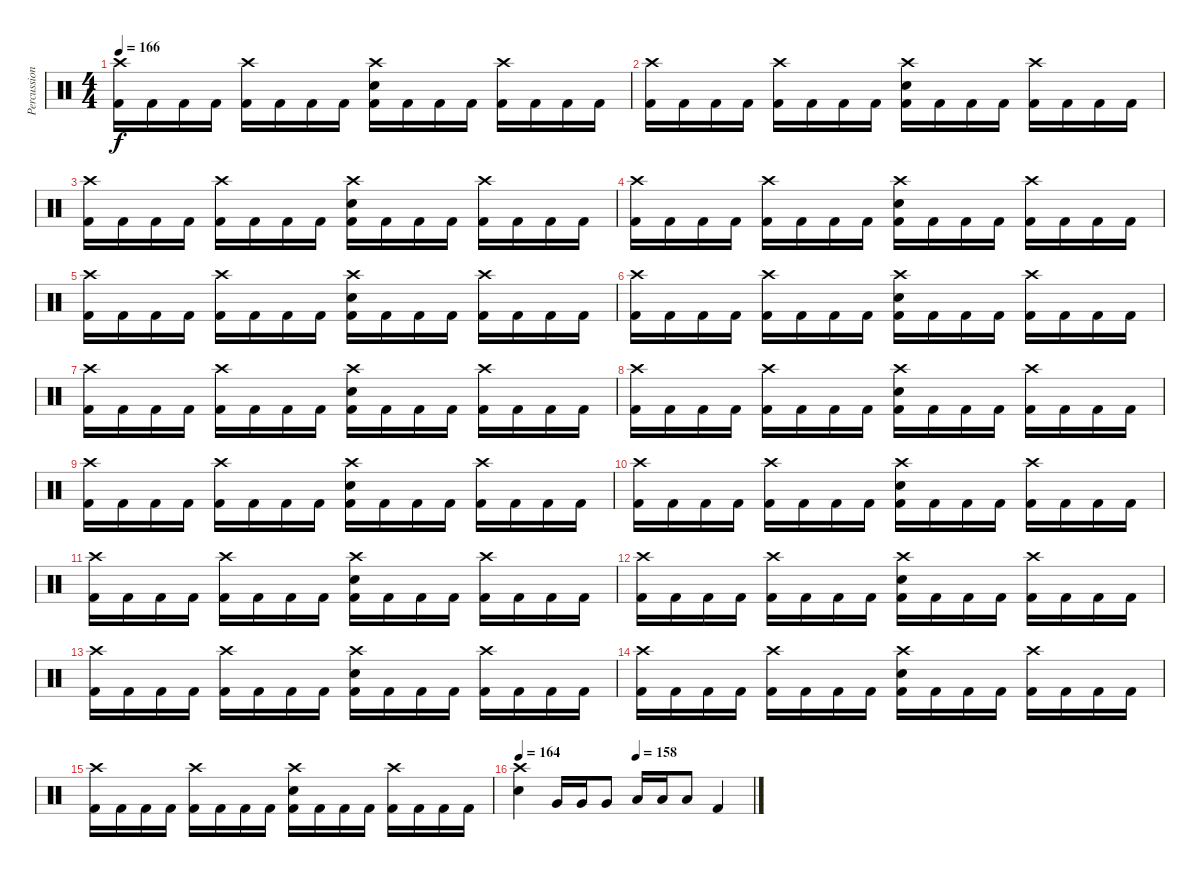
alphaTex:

\track ("Percussion" "Percussion") {instrument percussion}
\staff {score}
\articulation defaults
\ts (4 4)
\tempo 166
\clef neutral
\ks c
("Crash high (hit)" "Kick (hit) 2").16{dy f} "Kick (hit) 2".16 "Kick (hit) 2".16 "Kick (hit) 2".16 ("Crash high (hit)" "Kick (hit) 2").16 "Kick (hit) 2".16 "Kick (hit) 2".16 "Kick (hit) 2".16 ("Crash high (hit)" "Electric Snare (hit)" "Kick (hit) 2").16 "Kick (hit) 2".16 "Kick (hit) 2".16 "Kick (hit) 2".16 ("Crash high (hit)" "Kick (hit) 2").16 "Kick (hit) 2".16 "Kick (hit) 2".16 "Kick (hit) 2".16 |
("Crash high (hit)" "Kick (hit) 2").16 "Kick (hit) 2".16 "Kick (hit) 2".16 "Kick (hit) 2".16 ("Crash high (hit)" "Kick (hit) 2").16 "Kick (hit) 2".16 "Kick (hit) 2".16 "Kick (hit) 2".16 ("Crash high (hit)" "Electric Snare (hit)" "Kick (hit) 2").16 "Kick (hit) 2".16 "Kick (hit) 2".16 "Kick (hit) 2".16 ("Crash high (hit)" "Kick (hit) 2").16 "Kick (hit) 2".16 "Kick (hit) 2".16 "Kick (hit) 2".16 |
("Crash high (hit)" "Kick (hit) 2").16 "Kick (hit) 2".16 "Kick (hit) 2".16 "Kick (hit) 2".16 ("Crash high (hit)" "Kick (hit) 2").16 "Kick (hit) 2".16 "Kick (hit) 2".16 "Kick (hit) 2".16 ("Crash high (hit)" "Electric Snare (hit)" "Kick (hit) 2").16 "Kick (hit) 2".16 "Kick (hit) 2".16 "Kick (hit) 2".16 ("Crash high (hit)" "Kick (hit) 2").16 "Kick (hit) 2".16 "Kick (hit) 2".16 "Kick (hit) 2".16 |
("Crash high (hit)" "Kick (hit) 2").16 "Kick (hit) 2".16 "Kick (hit) 2".16 "Kick (hit) 2".16 ("Crash high (hit)" "Kick (hit) 2").16 "Kick (hit) 2".16 "Kick (hit) 2".16 "Kick (hit) 2".16 ("Crash high (hit)" "Electric Snare (hit)" "Kick (hit) 2").16 "Kick (hit) 2".16 "Kick (hit) 2".16 "Kick (hit) 2".16 ("Crash high (hit)" "Kick (hit) 2").16 "Kick (hit) 2".16 "Kick (hit) 2".16 "Kick (hit) 2".16 |
("Crash high (hit)" "Kick (hit) 2").16 "Kick (hit) 2".16 "Kick (hit) 2".16 "Kick (hit) 2".16 ("Crash high (hit)" "Kick (hit) 2").16 "Kick (hit) 2".16 "Kick (hit) 2".16 "Kick (hit) 2".16 ("Crash high (hit)" "Electric Snare (hit)" "Kick (hit) 2").16 "Kick (hit) 2".16 "Kick (hit) 2".16 "Kick (hit) 2".16 ("Crash high (hit)" "Kick (hit) 2").16 "Kick (hit) 2".16 "Kick (hit) 2".16 "Kick (hit) 2".16 |
("Crash high (hit)" "Kick (hit) 2").16 "Kick (hit) 2".16 "Kick (hit) 2".16 "Kick (hit) 2".16 ("Crash high (hit)" "Kick (hit) 2").16 "Kick (hit) 2".16 "Kick (hit) 2".16 "Kick (hit) 2".16 ("Crash high (hit)" "Electric Snare (hit)" "Kick (hit) 2").16 "Kick (hit) 2".16 "Kick (hit) 2".16 "Kick (hit) 2".16 ("Crash high (hit)" "Kick (hit) 2").16 "Kick (hit) 2".16 "Kick (hit) 2".16 "Kick (hit) 2".16 |
("Crash high (hit)" "Kick (hit) 2").16 "Kick (hit) 2".16 "Kick (hit) 2".16 "Kick (hit) 2".16 ("Crash high (hit)" "Kick (hit) 2").16 "Kick (hit) 2".16 "Kick (hit) 2".16 "Kick (hit) 2".16 ("Crash high (hit)" "Electric Snare (hit)" "Kick (hit) 2").16 "Kick (hit) 2".16 "Kick (hit) 2".16 "Kick (hit) 2".16 ("Crash high (hit)" "Kick (hit) 2").16 "Kick (hit) 2".16 "Kick (hit) 2".16 "Kick (hit) 2".16 |
("Crash high (hit)" "Kick (hit) 2").16 "Kick (hit) 2".16 "Kick (hit) 2".16 "Kick (hit) 2".16 ("Crash high (hit)" "Kick (hit) 2").16 "Kick (hit) 2".16 "Kick (hit) 2".16 "Kick (hit) 2".16 ("Crash high (hit)" "Electric Snare (hit)" "Kick (hit) 2").16 "Kick (hit) 2".16 "Kick (hit) 2".16 "Kick (hit) 2".16 ("Crash high (hit)" "Kick (hit) 2").16 "Kick (hit) 2".16 "Kick (hit) 2".16 "Kick (hit) 2".16 |
("Crash high (hit)" "Kick (hit) 2").16 "Kick (hit) 2".16 "Kick (hit) 2".16 "Kick (hit) 2".16 ("Crash high (hit)" "Kick (hit) 2").16 "Kick (hit) 2".16 "Kick (hit) 2".16 "Kick (hit) 2".16 ("Crash high (hit)" "Electric Snare (hit)" "Kick (hit) 2").16 "Kick (hit) 2".16 "Kick (hit) 2".16 "Kick (hit) 2".16 ("Crash high (hit)" "Kick (hit) 2").16 "Kick (hit) 2".16 "Kick (hit) 2".16 "Kick (hit) 2".16 |
("Crash high (hit)" "Kick (hit) 2").16 "Kick (hit) 2".16 "Kick (hit) 2".16 "Kick (hit) 2".16 ("Crash high (hit)" "Kick (hit) 2").16 "Kick (hit) 2".16 "Kick (hit) 2".16 "Kick (hit) 2".16 ("Crash high (hit)" "Electric Snare (hit)" "Kick (hit) 2").16 "Kick (hit) 2".16 "Kick (hit) 2".16 "Kick (hit) 2".16 ("Crash high (hit)" "Kick (hit) 2").16 "Kick (hit) 2".16 "Kick (hit) 2".16 "Kick (hit) 2".16 |
("Crash high (hit)" "Kick (hit) 2").16 "Kick (hit) 2".16 "Kick (hit) 2".16 "Kick (hit) 2".16 ("Crash high (hit)" "Kick (hit) 2").16 "Kick (hit) 2".16 "Kick (hit) 2".16 "Kick (hit) 2".16 ("Crash high (hit)" "Electric Snare (hit)" "Kick (hit) 2").16 "Kick (hit) 2".16 "Kick (hit) 2".16 "Kick (hit) 2".16 ("Crash high (hit)" "Kick (hit) 2").16 "Kick (hit) 2".16 "Kick (hit) 2".16 "Kick (hit) 2".16 |
("Crash high (hit)" "Kick (hit) 2").16 "Kick (hit) 2".16 "Kick (hit) 2".16 "Kick (hit) 2".16 ("Crash high (hit)" "Kick (hit) 2").16 "Kick (hit) 2".16 "Kick (hit) 2".16 "Kick (hit) 2".16 ("Crash high (hit)" "Electric Snare (hit)" "Kick (hit) 2").16 "Kick (hit) 2".16 "Kick (hit) 2".16 "Kick (hit) 2".16 ("Crash high (hit)" "Kick (hit) 2").16 "Kick (hit) 2".16 "Kick (hit) 2".16 "Kick (hit) 2".16 |
("Crash high (hit)" "Kick (hit) 2").16 "Kick (hit) 2".16 "Kick (hit) 2".16 "Kick (hit) 2".16 ("Crash high (hit)" "Kick (hit) 2").16 "Kick (hit) 2".16 "Kick (hit) 2".16 "Kick (hit) 2".16 ("Crash high (hit)" "Electric Snare (hit)" "Kick (hit) 2").16 "Kick (hit) 2".16 "Kick (hit) 2".16 "Kick (hit) 2".16 ("Crash high (hit)" "Kick (hit) 2").16 "Kick (hit) 2".16 "Kick (hit) 2".16 "Kick (hit) 2".16 |
("Crash high (hit)" "Kick (hit) 2").16 "Kick (hit) 2".16 "Kick (hit) 2".16 "Kick (hit) 2".16 ("Crash high (hit)" "Kick (hit) 2").16 "Kick (hit) 2".16 "Kick (hit) 2".16 "Kick (hit) 2".16 ("Crash high (hit)" "Electric Snare (hit)" "Kick (hit) 2").16 "Kick (hit) 2".16 "Kick (hit) 2".16 "Kick (hit) 2".16 ("Crash high (hit)" "Kick (hit) 2").16 "Kick (hit) 2".16 "Kick (hit) 2".16 "Kick (hit) 2".16 |
("Crash high (hit)" "Kick (hit) 2").16 "Kick (hit) 2".16 "Kick (hit) 2".16 "Kick (hit) 2".16 ("Crash high (hit)" "Kick (hit) 2").16 "Kick (hit) 2".16 "Kick (hit) 2".16 "Kick (hit) 2".16 ("Crash high (hit)" "Electric Snare (hit)" "Kick (hit) 2").16 "Kick (hit) 2".16 "Kick (hit) 2".16 "Kick (hit) 2".16 ("Crash high (hit)" "Kick (hit) 2").16 "Kick (hit) 2".16 "Kick (hit) 2".16 "Kick (hit) 2".16 |
\tempo 164
\tempo (158 0.5)
("Crash high (hit)" "Electric Snare (hit)").4 "Very Low Tom (hit)".16 "Very Low Tom (hit)".16 "Very Low Tom (hit)".8 "Low Floor Tom (hit)".16 "Low Floor Tom (hit)".16 "Low Floor Tom (hit)".8 "Kick (hit) 2".4
